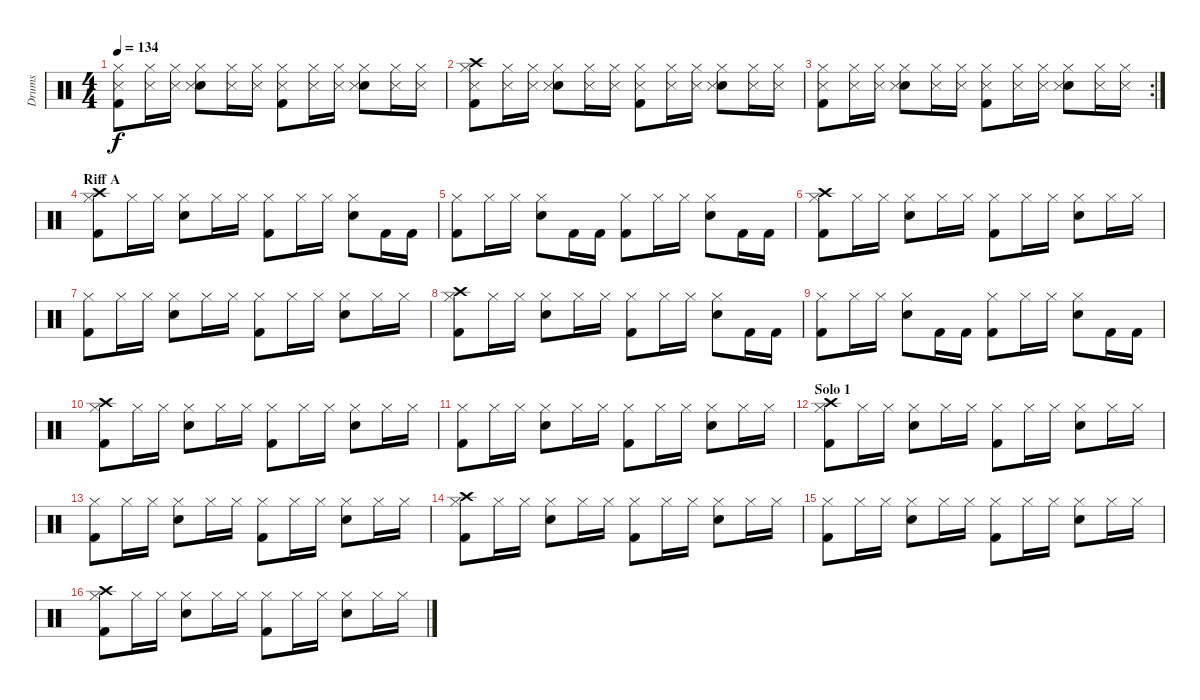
\track ("Drums" "Drums") {instrument percussion}
\staff {score}
\articulation defaults
\ts (4 4)
\tempo 134
\clef neutral
\ks c
("Kick (hit) 2" "Hi-Hat (closed)" "Snare (side stick) 3").8{dy f} ("Hi-Hat (closed)" "Snare (side stick) 3").16 ("Hi-Hat (closed)" "Snare (side stick) 3").16 ("Snare (hit) 2" "Hi-Hat (closed)" "Snare (side stick) 3").8 ("Hi-Hat (closed)" "Snare (side stick) 3").16 ("Hi-Hat (closed)" "Snare (side stick) 3").16 ("Kick (hit) 2" "Hi-Hat (closed)" "Snare (side stick) 3").8 ("Hi-Hat (closed)" "Snare (side stick) 3").16 ("Hi-Hat (closed)" "Snare (side stick) 3").16 ("Snare (hit) 2" "Hi-Hat (closed)" "Snare (side stick) 3").8 ("Hi-Hat (closed)" "Snare (side stick) 3").16 ("Hi-Hat (closed)" "Snare (side stick) 3").16 |
("Kick (hit) 2" "Hi-Hat (closed)" "Crash high (hit)" "Snare (side stick) 3").8 ("Hi-Hat (closed)" "Snare (side stick) 3").16 ("Hi-Hat (closed)" "Snare (side stick) 3").16 ("Snare (hit) 2" "Hi-Hat (closed)" "Snare (side stick) 3").8 ("Hi-Hat (closed)" "Snare (side stick) 3").16 ("Hi-Hat (closed)" "Snare (side stick) 3").16 ("Kick (hit) 2" "Hi-Hat (closed)" "Snare (side stick) 3").8 ("Hi-Hat (closed)" "Snare (side stick) 3").16 ("Hi-Hat (closed)" "Snare (side stick) 3").16 ("Snare (hit) 2" "Hi-Hat (closed)" "Snare (side stick) 3").8 ("Hi-Hat (closed)" "Snare (side stick) 3").16 ("Hi-Hat (closed)" "Snare (side stick) 3").16 |
\rc 2
("Kick (hit) 2" "Hi-Hat (closed)" "Snare (side stick) 3").8 ("Hi-Hat (closed)" "Snare (side stick) 3").16 ("Hi-Hat (closed)" "Snare (side stick) 3").16 ("Snare (hit) 2" "Hi-Hat (closed)" "Snare (side stick) 3").8 ("Hi-Hat (closed)" "Snare (side stick) 3").16 ("Hi-Hat (closed)" "Snare (side stick) 3").16 ("Kick (hit) 2" "Hi-Hat (closed)" "Snare (side stick) 3").8 ("Hi-Hat (closed)" "Snare (side stick) 3").16 ("Hi-Hat (closed)" "Snare (side stick) 3").16 ("Snare (hit) 2" "Hi-Hat (closed)" "Snare (side stick) 3").8 ("Hi-Hat (closed)" "Snare (side stick) 3").16 ("Hi-Hat (closed)" "Snare (side stick) 3").16 |
\section ("" "Riff A")
("Kick (hit) 2" "Hi-Hat (closed)" "Crash high (hit)").8 "Hi-Hat (closed)".16 "Hi-Hat (closed)".16 ("Snare (hit) 2" "Hi-Hat (closed)").8 "Hi-Hat (closed)".16 "Hi-Hat (closed)".16 ("Kick (hit) 2" "Hi-Hat (closed)").8 "Hi-Hat (closed)".16 "Hi-Hat (closed)".16 ("Snare (hit) 2" "Hi-Hat (closed)").8 "Kick (hit) 2".16 "Kick (hit) 2".16 |
("Kick (hit) 2" "Hi-Hat (closed)").8 "Hi-Hat (closed)".16 "Hi-Hat (closed)".16 ("Snare (hit) 2" "Hi-Hat (closed)").8 "Kick (hit) 2".16 "Kick (hit) 2".16 ("Kick (hit) 2" "Hi-Hat (closed)").8 "Hi-Hat (closed)".16 "Hi-Hat (closed)".16 ("Snare (hit) 2" "Hi-Hat (closed)").8 "Kick (hit) 2".16 "Kick (hit) 2".16 |
("Kick (hit) 2" "Hi-Hat (closed)" "Crash high (hit)").8 "Hi-Hat (closed)".16 "Hi-Hat (closed)".16 ("Snare (hit) 2" "Hi-Hat (closed)").8 "Hi-Hat (closed)".16 "Hi-Hat (closed)".16 ("Kick (hit) 2" "Hi-Hat (closed)").8 "Hi-Hat (closed)".16 "Hi-Hat (closed)".16 ("Snare (hit) 2" "Hi-Hat (closed)").8 "Hi-Hat (closed)".16 "Hi-Hat (closed)".16 |
("Kick (hit) 2" "Hi-Hat (closed)").8 "Hi-Hat (closed)".16 "Hi-Hat (closed)".16 ("Snare (hit) 2" "Hi-Hat (closed)").8 "Hi-Hat (closed)".16 "Hi-Hat (closed)".16 ("Kick (hit) 2" "Hi-Hat (closed)").8 "Hi-Hat (closed)".16 "Hi-Hat (closed)".16 ("Snare (hit) 2" "Hi-Hat (closed)").8 "Hi-Hat (closed)".16 "Hi-Hat (closed)".16 |
("Kick (hit) 2" "Hi-Hat (closed)" "Crash high (hit)").8 "Hi-Hat (closed)".16 "Hi-Hat (closed)".16 ("Snare (hit) 2" "Hi-Hat (closed)").8 "Hi-Hat (closed)".16 "Hi-Hat (closed)".16 ("Kick (hit) 2" "Hi-Hat (closed)").8 "Hi-Hat (closed)".16 "Hi-Hat (closed)".16 ("Snare (hit) 2" "Hi-Hat (closed)").8 "Kick (hit) 2".16 "Kick (hit) 2".16 |
("Kick (hit) 2" "Hi-Hat (closed)").8 "Hi-Hat (closed)".16 "Hi-Hat (closed)".16 ("Snare (hit) 2" "Hi-Hat (closed)").8 "Kick (hit) 2".16 "Kick (hit) 2".16 ("Kick (hit) 2" "Hi-Hat (closed)").8 "Hi-Hat (closed)".16 "Hi-Hat (closed)".16 ("Snare (hit) 2" "Hi-Hat (closed)").8 "Kick (hit) 2".16 "Kick (hit) 2".16 |
("Kick (hit) 2" "Hi-Hat (closed)" "Crash high (hit)").8 "Hi-Hat (closed)".16 "Hi-Hat (closed)".16 ("Snare (hit) 2" "Hi-Hat (closed)").8 "Hi-Hat (closed)".16 "Hi-Hat (closed)".16 ("Kick (hit) 2" "Hi-Hat (closed)").8 "Hi-Hat (closed)".16 "Hi-Hat (closed)".16 ("Snare (hit) 2" "Hi-Hat (closed)").8 "Hi-Hat (closed)".16 "Hi-Hat (closed)".16 |
("Kick (hit) 2" "Hi-Hat (closed)").8 "Hi-Hat (closed)".16 "Hi-Hat (closed)".16 ("Snare (hit) 2" "Hi-Hat (closed)").8 "Hi-Hat (closed)".16 "Hi-Hat (closed)".16 ("Kick (hit) 2" "Hi-Hat (closed)").8 "Hi-Hat (closed)".16 "Hi-Hat (closed)".16 ("Snare (hit) 2" "Hi-Hat (closed)").8 "Hi-Hat (closed)".16 "Hi-Hat (closed)".16 |
\section ("" "Solo 1")
("Kick (hit) 2" "Hi-Hat (closed)" "Crash high (hit)").8 "Hi-Hat (closed)".16 "Hi-Hat (closed)".16 ("Snare (hit) 2" "Hi-Hat (closed)").8 "Hi-Hat (closed)".16 "Hi-Hat (closed)".16 ("Kick (hit) 2" "Hi-Hat (closed)").8 "Hi-Hat (closed)".16 "Hi-Hat (closed)".16 ("Snare (hit) 2" "Hi-Hat (closed)").8 "Hi-Hat (closed)".16 "Hi-Hat (closed)".16 |
("Kick (hit) 2" "Hi-Hat (closed)").8 "Hi-Hat (closed)".16 "Hi-Hat (closed)".16 ("Snare (hit) 2" "Hi-Hat (closed)").8 "Hi-Hat (closed)".16 "Hi-Hat (closed)".16 ("Kick (hit) 2" "Hi-Hat (closed)").8 "Hi-Hat (closed)".16 "Hi-Hat (closed)".16 ("Snare (hit) 2" "Hi-Hat (closed)").8 "Hi-Hat (closed)".16 "Hi-Hat (closed)".16 |
("Kick (hit) 2" "Hi-Hat (closed)" "Crash high (hit)").8 "Hi-Hat (closed)".16 "Hi-Hat (closed)".16 ("Snare (hit) 2" "Hi-Hat (closed)").8 "Hi-Hat (closed)".16 "Hi-Hat (closed)".16 ("Kick (hit) 2" "Hi-Hat (closed)").8 "Hi-Hat (closed)".16 "Hi-Hat (closed)".16 ("Snare (hit) 2" "Hi-Hat (closed)").8 "Hi-Hat (closed)".16 "Hi-Hat (closed)".16 |
("Kick (hit) 2" "Hi-Hat (closed)").8 "Hi-Hat (closed)".16 "Hi-Hat (closed)".16 ("Snare (hit) 2" "Hi-Hat (closed)").8 "Hi-Hat (closed)".16 "Hi-Hat (closed)".16 ("Kick (hit) 2" "Hi-Hat (closed)").8 "Hi-Hat (closed)".16 "Hi-Hat (closed)".16 ("Snare (hit) 2" "Hi-Hat (closed)").8 "Hi-Hat (closed)".16 "Hi-Hat (closed)".16 |
("Kick (hit) 2" "Hi-Hat (closed)" "Crash high (hit)").8 "Hi-Hat (closed)".16 "Hi-Hat (closed)".16 ("Snare (hit) 2" "Hi-Hat (closed)").8 "Hi-Hat (closed)".16 "Hi-Hat (closed)".16 ("Kick (hit) 2" "Hi-Hat (closed)").8 "Hi-Hat (closed)".16 "Hi-Hat (closed)".16 ("Snare (hit) 2" "Hi-Hat (closed)").8 "Hi-Hat (closed)".16 "Hi-Hat (closed)".16
